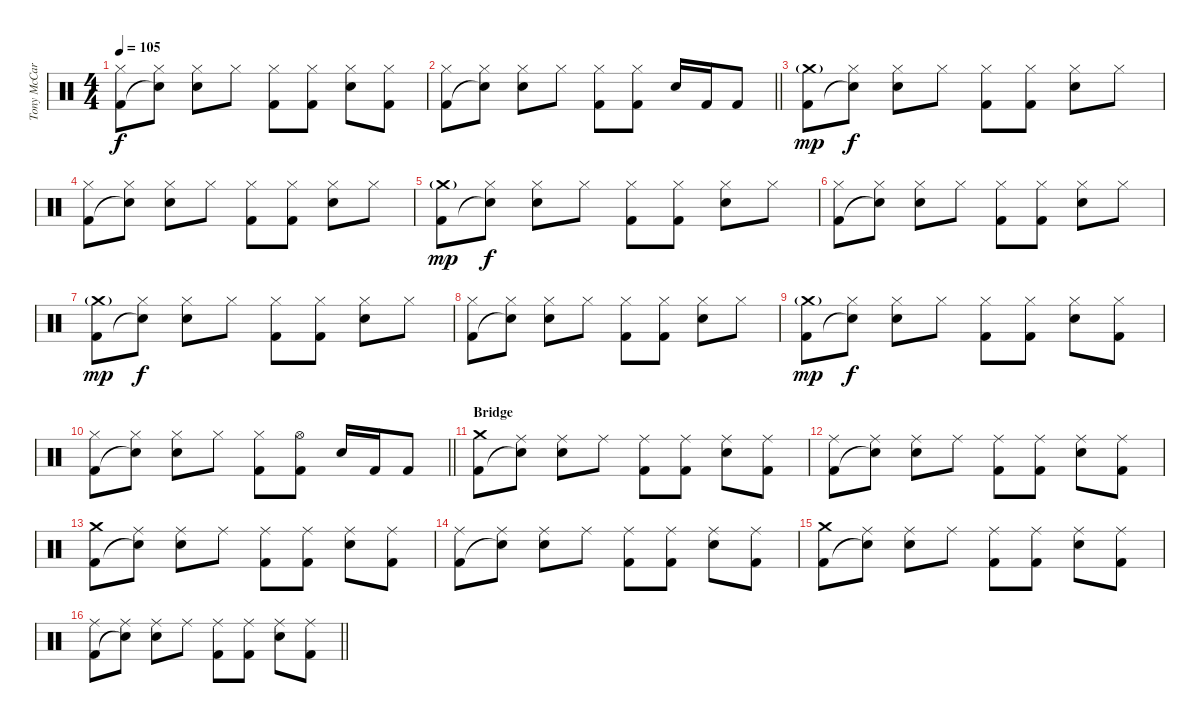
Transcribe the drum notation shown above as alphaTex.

\track ("Tony McCaroll" "Tony McCar") {instrument percussion}
\staff {score}
\articulation defaults
\ts (4 4)
\tempo 105
\clef neutral
\ks c
("Hi-Hat (closed)" "Kick (hit) 2").8{dy f} ("Hi-Hat (closed)" "Snare (hit)"{t}).8 ("Hi-Hat (closed)" "Snare (hit) 2").8 "Hi-Hat (closed)".8 ("Hi-Hat (closed)" "Kick (hit) 2").8 ("Hi-Hat (closed)" "Kick (hit) 2").8 ("Hi-Hat (closed)" "Snare (hit) 2").8 ("Hi-Hat (closed)" "Kick (hit) 2").8 |
\barLineRight lightlight
("Hi-Hat (closed)" "Kick (hit) 2").8 ("Hi-Hat (closed)" "Snare (hit)"{t}).8 ("Hi-Hat (closed)" "Snare (hit) 2").8 "Hi-Hat (closed)".8 ("Hi-Hat (closed)" "Kick (hit) 2").8 ("Hi-Hat (closed)" "Kick (hit) 2").8 "Snare (hit) 2".16 "Kick (hit) 2".16 "Kick (hit) 2".8 |
("Crash medium (hit)"{g} "Kick (hit) 2").8{dy mp} ("Hi-Hat (closed)" "Snare (hit)"{t}).8{dy f} ("Hi-Hat (closed)" "Snare (hit) 2").8 "Hi-Hat (closed)".8 ("Hi-Hat (closed)" "Kick (hit) 2").8 ("Hi-Hat (closed)" "Kick (hit) 2").8 ("Hi-Hat (closed)" "Snare (hit) 2").8 "Hi-Hat (closed)".8 |
("Hi-Hat (closed)" "Kick (hit) 2").8 ("Hi-Hat (closed)" "Snare (hit)"{t}).8 ("Hi-Hat (closed)" "Snare (hit) 2").8 "Hi-Hat (closed)".8 ("Hi-Hat (closed)" "Kick (hit) 2").8 ("Hi-Hat (closed)" "Kick (hit) 2").8 ("Hi-Hat (closed)" "Snare (hit) 2").8 "Hi-Hat (closed)".8 |
("Crash medium (hit)"{g} "Kick (hit) 2").8{dy mp} ("Hi-Hat (closed)" "Snare (hit)"{t}).8{dy f} ("Hi-Hat (closed)" "Snare (hit) 2").8 "Hi-Hat (closed)".8 ("Hi-Hat (closed)" "Kick (hit) 2").8 ("Hi-Hat (closed)" "Kick (hit) 2").8 ("Hi-Hat (closed)" "Snare (hit) 2").8 "Hi-Hat (closed)".8 |
("Hi-Hat (closed)" "Kick (hit) 2").8 ("Hi-Hat (closed)" "Snare (hit)"{t}).8 ("Hi-Hat (closed)" "Snare (hit) 2").8 "Hi-Hat (closed)".8 ("Hi-Hat (closed)" "Kick (hit) 2").8 ("Hi-Hat (closed)" "Kick (hit) 2").8 ("Hi-Hat (closed)" "Snare (hit) 2").8 "Hi-Hat (closed)".8 |
("Crash medium (hit)"{g} "Kick (hit) 2").8{dy mp} ("Hi-Hat (closed)" "Snare (hit)"{t}).8{dy f} ("Hi-Hat (closed)" "Snare (hit) 2").8 "Hi-Hat (closed)".8 ("Hi-Hat (closed)" "Kick (hit) 2").8 ("Hi-Hat (closed)" "Kick (hit) 2").8 ("Hi-Hat (closed)" "Snare (hit) 2").8 "Hi-Hat (closed)".8 |
("Hi-Hat (closed)" "Kick (hit) 2").8 ("Hi-Hat (closed)" "Snare (hit)"{t}).8 ("Hi-Hat (closed)" "Snare (hit) 2").8 "Hi-Hat (closed)".8 ("Hi-Hat (closed)" "Kick (hit) 2").8 ("Hi-Hat (closed)" "Kick (hit) 2").8 ("Hi-Hat (closed)" "Snare (hit) 2").8 "Hi-Hat (closed)".8 |
("Crash medium (hit)"{g} "Kick (hit) 2").8{dy mp} ("Hi-Hat (closed)" "Snare (hit)"{t}).8{dy f} ("Hi-Hat (closed)" "Snare (hit) 2").8 "Hi-Hat (closed)".8 ("Hi-Hat (closed)" "Kick (hit) 2").8 ("Hi-Hat (closed)" "Kick (hit) 2").8 ("Hi-Hat (closed)" "Snare (hit) 2").8 ("Hi-Hat (closed)" "Kick (hit) 2").8 |
\barLineRight lightlight
("Hi-Hat (closed)" "Kick (hit) 2").8 ("Hi-Hat (closed)" "Snare (hit)"{t}).8 ("Hi-Hat (closed)" "Snare (hit) 2").8 "Hi-Hat (closed)".8 ("Hi-Hat (closed)" "Kick (hit) 2").8 ("Hi-Hat (open)" "Kick (hit) 2").8 "Snare (hit) 2".16 "Kick (hit) 2".16 "Kick (hit) 2".8 |
\section ("" "Bridge")
("Crash medium (hit)" "Kick (hit) 2").8 ("Ride (middle)" "Snare (hit)"{t}).8 ("Ride (middle)" "Snare (hit) 2").8 "Ride (middle)".8 ("Ride (middle)" "Kick (hit) 2").8 ("Ride (middle)" "Kick (hit) 2").8 ("Ride (middle)" "Snare (hit) 2").8 ("Ride (middle)" "Kick (hit) 2").8 |
("Ride (middle)" "Kick (hit) 2").8 ("Ride (middle)" "Snare (hit)"{t}).8 ("Ride (middle)" "Snare (hit) 2").8 "Ride (middle)".8 ("Ride (middle)" "Kick (hit) 2").8 ("Ride (middle)" "Kick (hit) 2").8 ("Ride (middle)" "Snare (hit) 2").8 ("Ride (middle)" "Kick (hit) 2").8 |
("Crash medium (hit)" "Kick (hit) 2").8 ("Ride (middle)" "Snare (hit)"{t}).8 ("Ride (middle)" "Snare (hit) 2").8 "Ride (middle)".8 ("Ride (middle)" "Kick (hit) 2").8 ("Ride (middle)" "Kick (hit) 2").8 ("Ride (middle)" "Snare (hit) 2").8 ("Ride (middle)" "Kick (hit) 2").8 |
("Ride (middle)" "Kick (hit) 2").8 ("Ride (middle)" "Snare (hit)"{t}).8 ("Ride (middle)" "Snare (hit) 2").8 "Ride (middle)".8 ("Ride (middle)" "Kick (hit) 2").8 ("Ride (middle)" "Kick (hit) 2").8 ("Ride (middle)" "Snare (hit) 2").8 ("Ride (middle)" "Kick (hit) 2").8 |
("Crash medium (hit)" "Kick (hit) 2").8 ("Ride (middle)" "Snare (hit)"{t}).8 ("Ride (middle)" "Snare (hit) 2").8 "Ride (middle)".8 ("Ride (middle)" "Kick (hit) 2").8 ("Ride (middle)" "Kick (hit) 2").8 ("Ride (middle)" "Snare (hit) 2").8 ("Ride (middle)" "Kick (hit) 2").8 |
\barLineRight lightlight
("Ride (middle)" "Kick (hit) 2").8 ("Ride (middle)" "Snare (hit)"{t}).8 ("Ride (middle)" "Snare (hit) 2").8 "Ride (middle)".8 ("Ride (middle)" "Kick (hit) 2").8 ("Ride (middle)" "Kick (hit) 2").8 ("Ride (middle)" "Snare (hit) 2").8 ("Ride (middle)" "Kick (hit) 2").8
